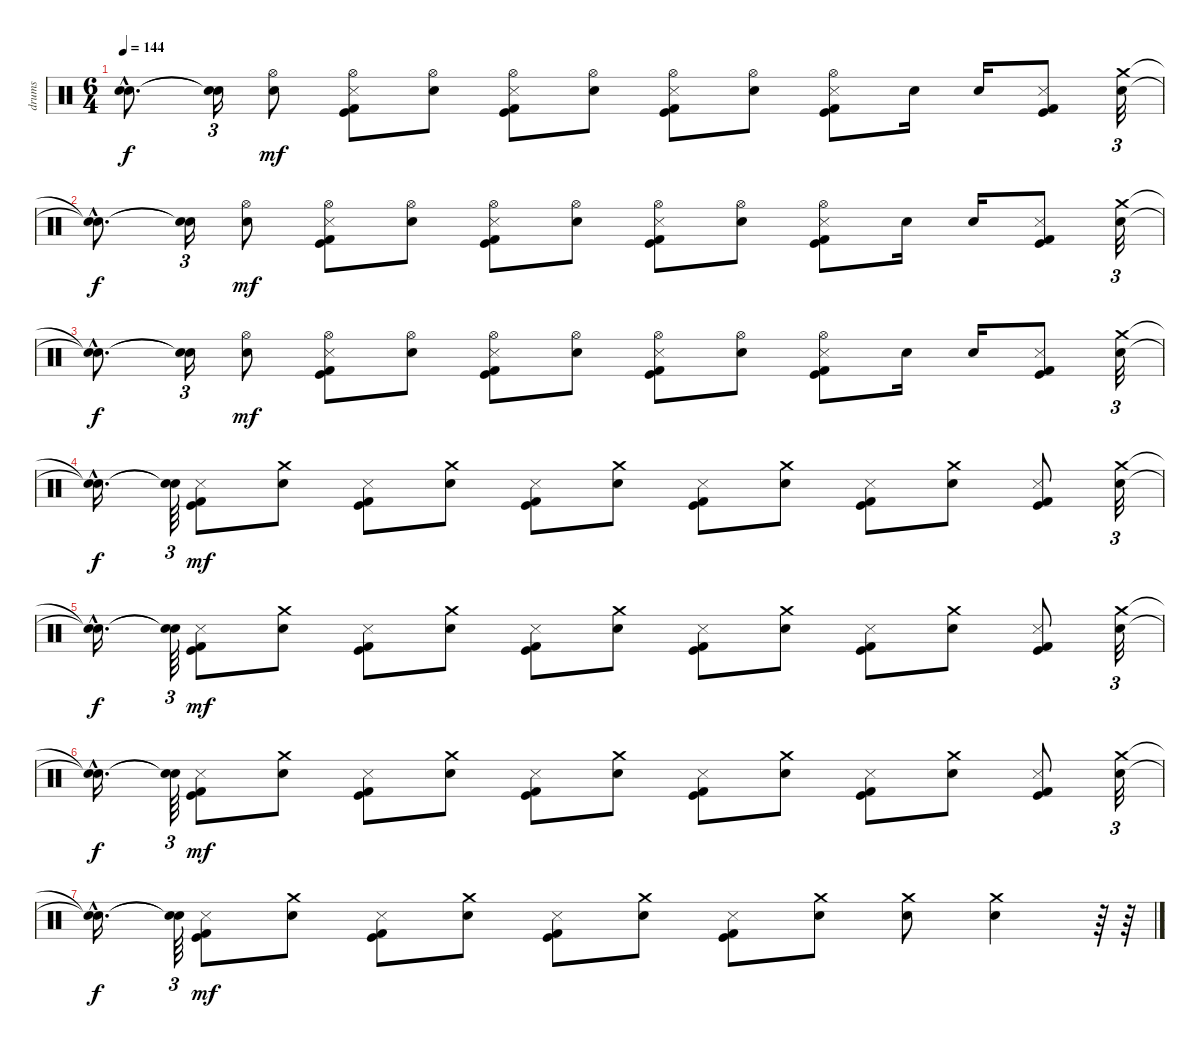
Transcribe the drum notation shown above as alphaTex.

\track ("drums" "drums") {instrument percussion}
\staff {score}
\articulation defaults
\ts (6 4)
\tempo 144
\clef neutral
\ks c
("Snare (hit)"{hac t} "Snare (hit)"{hac t}).8{d dy f} ("Snare (hit)"{t} "Snare (hit)"{t}).16{tu (3 2)} ("Snare (hit) 2" "Hi-Hat (open)").8{dy mf} ("Hi-Hat (open)" "Metronome (hit)" "Kick (hit)" "Kick (hit) 2").8 ("Snare (hit) 2" "Hi-Hat (open)").8 ("Hi-Hat (open)" "Metronome (hit)" "Kick (hit)" "Kick (hit) 2").8 ("Snare (hit) 2" "Hi-Hat (open)").8 ("Hi-Hat (open)" "Metronome (hit)" "Kick (hit)" "Kick (hit) 2").8 ("Snare (hit) 2" "Hi-Hat (open)").8 ("Hi-Hat (open)" "Metronome (hit)" "Kick (hit)" "Kick (hit) 2").8 "Snare (hit) 2".16 "Snare (hit) 2".16 ("Metronome (hit)" "Kick (hit)" "Kick (hit) 2").8 ("Snare (hit) 2" "Crash medium (hit)").32{tu (3 2)} |
("Snare (hit)"{hac t} "Snare (hit)"{hac t}).8{d dy f} ("Snare (hit)"{t} "Snare (hit)"{t}).16{tu (3 2)} ("Snare (hit) 2" "Hi-Hat (open)").8{dy mf} ("Hi-Hat (open)" "Metronome (hit)" "Kick (hit)" "Kick (hit) 2").8 ("Snare (hit) 2" "Hi-Hat (open)").8 ("Hi-Hat (open)" "Metronome (hit)" "Kick (hit)" "Kick (hit) 2").8 ("Snare (hit) 2" "Hi-Hat (open)").8 ("Hi-Hat (open)" "Metronome (hit)" "Kick (hit)" "Kick (hit) 2").8 ("Snare (hit) 2" "Hi-Hat (open)").8 ("Hi-Hat (open)" "Metronome (hit)" "Kick (hit)" "Kick (hit) 2").8 "Snare (hit) 2".16 "Snare (hit) 2".16 ("Metronome (hit)" "Kick (hit)" "Kick (hit) 2").8 ("Snare (hit) 2" "Crash medium (hit)").32{tu (3 2)} |
("Snare (hit)"{hac t} "Snare (hit)"{hac t}).8{d dy f} ("Snare (hit)"{t} "Snare (hit)"{t}).16{tu (3 2)} ("Snare (hit) 2" "Hi-Hat (open)").8{dy mf} ("Hi-Hat (open)" "Metronome (hit)" "Kick (hit)" "Kick (hit) 2").8 ("Snare (hit) 2" "Hi-Hat (open)").8 ("Hi-Hat (open)" "Metronome (hit)" "Kick (hit)" "Kick (hit) 2").8 ("Snare (hit) 2" "Hi-Hat (open)").8 ("Hi-Hat (open)" "Metronome (hit)" "Kick (hit)" "Kick (hit) 2").8 ("Snare (hit) 2" "Hi-Hat (open)").8 ("Hi-Hat (open)" "Metronome (hit)" "Kick (hit)" "Kick (hit) 2").8 "Snare (hit) 2".16 "Snare (hit) 2".16 ("Metronome (hit)" "Kick (hit)" "Kick (hit) 2").8 ("Snare (hit) 2" "Crash medium (hit)").32{tu (3 2)} |
("Snare (hit)"{hac t} "Snare (hit)"{hac t}).16{d dy f} ("Snare (hit)"{t} "Snare (hit)"{t}).64{tu (3 2)} ("Metronome (hit)" "Kick (hit)" "Kick (hit) 2").8{dy mf} ("Snare (hit) 2" "Crash medium (hit)").8 ("Metronome (hit)" "Kick (hit)" "Kick (hit) 2").8 ("Snare (hit) 2" "Crash medium (hit)").8 ("Metronome (hit)" "Kick (hit)" "Kick (hit) 2").8 ("Snare (hit) 2" "Crash medium (hit)").8 ("Metronome (hit)" "Kick (hit)" "Kick (hit) 2").8 ("Snare (hit) 2" "Crash medium (hit)").8 ("Metronome (hit)" "Kick (hit)" "Kick (hit) 2").8 ("Snare (hit) 2" "Crash medium (hit)").8 ("Metronome (hit)" "Kick (hit)" "Kick (hit) 2").8 ("Snare (hit) 2" "Crash medium (hit)").32{tu (3 2)} |
("Snare (hit)"{hac t} "Snare (hit)"{hac t}).16{d dy f} ("Snare (hit)"{t} "Snare (hit)"{t}).64{tu (3 2)} ("Metronome (hit)" "Kick (hit)" "Kick (hit) 2").8{dy mf} ("Snare (hit) 2" "Crash medium (hit)").8 ("Metronome (hit)" "Kick (hit)" "Kick (hit) 2").8 ("Snare (hit) 2" "Crash medium (hit)").8 ("Metronome (hit)" "Kick (hit)" "Kick (hit) 2").8 ("Snare (hit) 2" "Crash medium (hit)").8 ("Metronome (hit)" "Kick (hit)" "Kick (hit) 2").8 ("Snare (hit) 2" "Crash medium (hit)").8 ("Metronome (hit)" "Kick (hit)" "Kick (hit) 2").8 ("Snare (hit) 2" "Crash medium (hit)").8 ("Metronome (hit)" "Kick (hit)" "Kick (hit) 2").8 ("Snare (hit) 2" "Crash medium (hit)").32{tu (3 2)} |
("Snare (hit)"{hac t} "Snare (hit)"{hac t}).16{d dy f} ("Snare (hit)"{t} "Snare (hit)"{t}).64{tu (3 2)} ("Metronome (hit)" "Kick (hit)" "Kick (hit) 2").8{dy mf} ("Snare (hit) 2" "Crash medium (hit)").8 ("Metronome (hit)" "Kick (hit)" "Kick (hit) 2").8 ("Snare (hit) 2" "Crash medium (hit)").8 ("Metronome (hit)" "Kick (hit)" "Kick (hit) 2").8 ("Snare (hit) 2" "Crash medium (hit)").8 ("Metronome (hit)" "Kick (hit)" "Kick (hit) 2").8 ("Snare (hit) 2" "Crash medium (hit)").8 ("Metronome (hit)" "Kick (hit)" "Kick (hit) 2").8 ("Snare (hit) 2" "Crash medium (hit)").8 ("Metronome (hit)" "Kick (hit)" "Kick (hit) 2").8 ("Snare (hit) 2" "Crash medium (hit)").32{tu (3 2)} |
("Snare (hit)"{hac t} "Snare (hit)"{hac t}).16{d dy f} ("Snare (hit)"{t} "Snare (hit)"{t}).64{tu (3 2)} ("Metronome (hit)" "Kick (hit)" "Kick (hit) 2").8{dy mf} ("Snare (hit) 2" "Crash medium (hit)").8 ("Metronome (hit)" "Kick (hit)" "Kick (hit) 2").8 ("Snare (hit) 2" "Crash medium (hit)").8 ("Metronome (hit)" "Kick (hit)" "Kick (hit) 2").8 ("Snare (hit) 2" "Crash medium (hit)").8 ("Metronome (hit)" "Kick (hit)" "Kick (hit) 2").8 ("Snare (hit) 2" "Crash medium (hit)").8 ("Snare (hit) 2" "Crash medium (hit)").8 ("Snare (hit) 2" "Crash medium (hit)").4 r.64{tu (3 2)} r.64{tu (3 2)}
